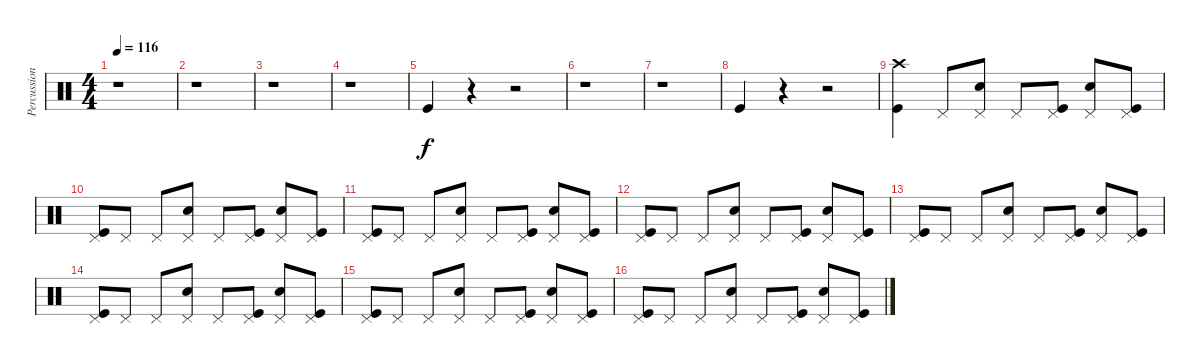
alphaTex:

\track ("Percussions" "Percussion") {instrument percussion}
\staff {score}
\articulation defaults
\ts (4 4)
\tempo 116
\clef neutral
\ks c
r.1{dy f} |
r.1 |
r.1 |
r.1 |
"Kick (hit)".4 r.4 r.2 |
r.1 |
r.1 |
"Kick (hit)".4 r.4 r.2 |
("Crash high (hit)" "Kick (hit)").4 "Pedal Hi-Hat (hit)".8 ("Pedal Hi-Hat (hit)" "Snare (hit) 2").8 "Pedal Hi-Hat (hit)".8 ("Pedal Hi-Hat (hit)" "Kick (hit)").8 ("Pedal Hi-Hat (hit)" "Snare (hit) 2").8 ("Pedal Hi-Hat (hit)" "Kick (hit)").8 |
("Pedal Hi-Hat (hit)" "Kick (hit)").8 "Pedal Hi-Hat (hit)".8 "Pedal Hi-Hat (hit)".8 ("Pedal Hi-Hat (hit)" "Snare (hit) 2").8 "Pedal Hi-Hat (hit)".8 ("Pedal Hi-Hat (hit)" "Kick (hit)").8 ("Pedal Hi-Hat (hit)" "Snare (hit) 2").8 ("Pedal Hi-Hat (hit)" "Kick (hit)").8 |
("Pedal Hi-Hat (hit)" "Kick (hit)").8 "Pedal Hi-Hat (hit)".8 "Pedal Hi-Hat (hit)".8 ("Pedal Hi-Hat (hit)" "Snare (hit) 2").8 "Pedal Hi-Hat (hit)".8 ("Pedal Hi-Hat (hit)" "Kick (hit)").8 ("Pedal Hi-Hat (hit)" "Snare (hit) 2").8 ("Pedal Hi-Hat (hit)" "Kick (hit)").8 |
("Pedal Hi-Hat (hit)" "Kick (hit)").8 "Pedal Hi-Hat (hit)".8 "Pedal Hi-Hat (hit)".8 ("Pedal Hi-Hat (hit)" "Snare (hit) 2").8 "Pedal Hi-Hat (hit)".8 ("Pedal Hi-Hat (hit)" "Kick (hit)").8 ("Pedal Hi-Hat (hit)" "Snare (hit) 2").8 ("Pedal Hi-Hat (hit)" "Kick (hit)").8 |
("Pedal Hi-Hat (hit)" "Kick (hit)").8 "Pedal Hi-Hat (hit)".8 "Pedal Hi-Hat (hit)".8 ("Pedal Hi-Hat (hit)" "Snare (hit) 2").8 "Pedal Hi-Hat (hit)".8 ("Pedal Hi-Hat (hit)" "Kick (hit)").8 ("Pedal Hi-Hat (hit)" "Snare (hit) 2").8 ("Pedal Hi-Hat (hit)" "Kick (hit)").8 |
("Pedal Hi-Hat (hit)" "Kick (hit)").8 "Pedal Hi-Hat (hit)".8 "Pedal Hi-Hat (hit)".8 ("Pedal Hi-Hat (hit)" "Snare (hit) 2").8 "Pedal Hi-Hat (hit)".8 ("Pedal Hi-Hat (hit)" "Kick (hit)").8 ("Pedal Hi-Hat (hit)" "Snare (hit) 2").8 ("Pedal Hi-Hat (hit)" "Kick (hit)").8 |
("Pedal Hi-Hat (hit)" "Kick (hit)").8 "Pedal Hi-Hat (hit)".8 "Pedal Hi-Hat (hit)".8 ("Pedal Hi-Hat (hit)" "Snare (hit) 2").8 "Pedal Hi-Hat (hit)".8 ("Pedal Hi-Hat (hit)" "Kick (hit)").8 ("Pedal Hi-Hat (hit)" "Snare (hit) 2").8 ("Pedal Hi-Hat (hit)" "Kick (hit)").8 |
("Pedal Hi-Hat (hit)" "Kick (hit)").8 "Pedal Hi-Hat (hit)".8 "Pedal Hi-Hat (hit)".8 ("Pedal Hi-Hat (hit)" "Snare (hit) 2").8 "Pedal Hi-Hat (hit)".8 ("Pedal Hi-Hat (hit)" "Kick (hit)").8 ("Pedal Hi-Hat (hit)" "Snare (hit) 2").8 ("Pedal Hi-Hat (hit)" "Kick (hit)").8
